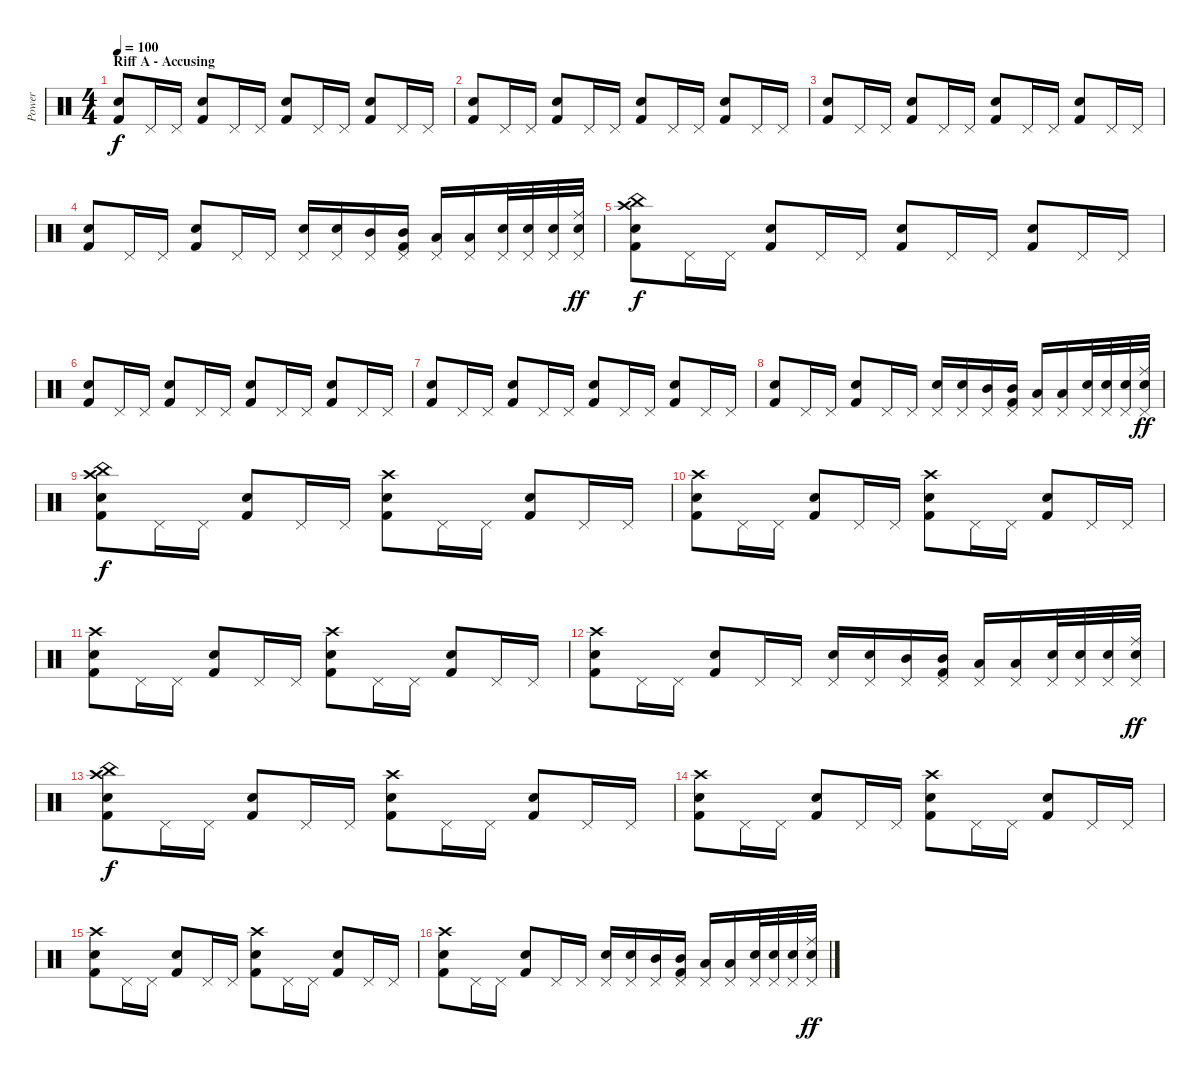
\track ("Power" "Power") {instrument percussion}
\staff {score}
\articulation defaults
\ts (4 4)
\section ("" "Riff A - Accusing")
\tempo 100
\clef neutral
\ks c
("Kick (hit) 2" "Electric Snare (hit)").8{dy f} "Pedal Hi-Hat (hit)".16 "Pedal Hi-Hat (hit)".16 ("Kick (hit) 2" "Electric Snare (hit)").8 "Pedal Hi-Hat (hit)".16 "Pedal Hi-Hat (hit)".16 ("Kick (hit) 2" "Electric Snare (hit)").8 "Pedal Hi-Hat (hit)".16 "Pedal Hi-Hat (hit)".16 ("Kick (hit) 2" "Electric Snare (hit)").8 "Pedal Hi-Hat (hit)".16 "Pedal Hi-Hat (hit)".16 |
("Kick (hit) 2" "Electric Snare (hit)").8 "Pedal Hi-Hat (hit)".16 "Pedal Hi-Hat (hit)".16 ("Kick (hit) 2" "Electric Snare (hit)").8 "Pedal Hi-Hat (hit)".16 "Pedal Hi-Hat (hit)".16 ("Kick (hit) 2" "Electric Snare (hit)").8 "Pedal Hi-Hat (hit)".16 "Pedal Hi-Hat (hit)".16 ("Kick (hit) 2" "Electric Snare (hit)").8 "Pedal Hi-Hat (hit)".16 "Pedal Hi-Hat (hit)".16 |
("Kick (hit) 2" "Electric Snare (hit)").8 "Pedal Hi-Hat (hit)".16 "Pedal Hi-Hat (hit)".16 ("Kick (hit) 2" "Electric Snare (hit)").8 "Pedal Hi-Hat (hit)".16 "Pedal Hi-Hat (hit)".16 ("Kick (hit) 2" "Electric Snare (hit)").8 "Pedal Hi-Hat (hit)".16 "Pedal Hi-Hat (hit)".16 ("Kick (hit) 2" "Electric Snare (hit)").8 "Pedal Hi-Hat (hit)".16 "Pedal Hi-Hat (hit)".16 |
("Kick (hit) 2" "Electric Snare (hit)").8 "Pedal Hi-Hat (hit)".16 "Pedal Hi-Hat (hit)".16 ("Kick (hit) 2" "Electric Snare (hit)").8 "Pedal Hi-Hat (hit)".16 "Pedal Hi-Hat (hit)".16 ("Pedal Hi-Hat (hit)" "Electric Snare (hit)").16 ("Pedal Hi-Hat (hit)" "Electric Snare (hit)").16 ("Pedal Hi-Hat (hit)" "Mid Tom (hit)").16 ("Pedal Hi-Hat (hit)" "Kick (hit) 2" "Mid Tom (hit)").16 ("Pedal Hi-Hat (hit)" "Low Tom (hit)").16 ("Pedal Hi-Hat (hit)" "Low Tom (hit)").16 ("Pedal Hi-Hat (hit)" "Electric Snare (hit)").32 ("Pedal Hi-Hat (hit)" "Electric Snare (hit)").32 ("Pedal Hi-Hat (hit)" "Electric Snare (hit)").32 ("Ride (middle)" "Pedal Hi-Hat (hit)" "Electric Snare (hit)").32{dy ff} |
("Crash high (hit)" "China (hit)" "Kick (hit) 2" "Electric Snare (hit)").8{dy f} "Pedal Hi-Hat (hit)".16 "Pedal Hi-Hat (hit)".16 ("Kick (hit) 2" "Electric Snare (hit)").8 "Pedal Hi-Hat (hit)".16 "Pedal Hi-Hat (hit)".16 ("Kick (hit) 2" "Electric Snare (hit)").8 "Pedal Hi-Hat (hit)".16 "Pedal Hi-Hat (hit)".16 ("Kick (hit) 2" "Electric Snare (hit)").8 "Pedal Hi-Hat (hit)".16 "Pedal Hi-Hat (hit)".16 |
("Kick (hit) 2" "Electric Snare (hit)").8 "Pedal Hi-Hat (hit)".16 "Pedal Hi-Hat (hit)".16 ("Kick (hit) 2" "Electric Snare (hit)").8 "Pedal Hi-Hat (hit)".16 "Pedal Hi-Hat (hit)".16 ("Kick (hit) 2" "Electric Snare (hit)").8 "Pedal Hi-Hat (hit)".16 "Pedal Hi-Hat (hit)".16 ("Kick (hit) 2" "Electric Snare (hit)").8 "Pedal Hi-Hat (hit)".16 "Pedal Hi-Hat (hit)".16 |
("Kick (hit) 2" "Electric Snare (hit)").8 "Pedal Hi-Hat (hit)".16 "Pedal Hi-Hat (hit)".16 ("Kick (hit) 2" "Electric Snare (hit)").8 "Pedal Hi-Hat (hit)".16 "Pedal Hi-Hat (hit)".16 ("Kick (hit) 2" "Electric Snare (hit)").8 "Pedal Hi-Hat (hit)".16 "Pedal Hi-Hat (hit)".16 ("Kick (hit) 2" "Electric Snare (hit)").8 "Pedal Hi-Hat (hit)".16 "Pedal Hi-Hat (hit)".16 |
("Kick (hit) 2" "Electric Snare (hit)").8 "Pedal Hi-Hat (hit)".16 "Pedal Hi-Hat (hit)".16 ("Kick (hit) 2" "Electric Snare (hit)").8 "Pedal Hi-Hat (hit)".16 "Pedal Hi-Hat (hit)".16 ("Pedal Hi-Hat (hit)" "Electric Snare (hit)").16 ("Pedal Hi-Hat (hit)" "Electric Snare (hit)").16 ("Pedal Hi-Hat (hit)" "Mid Tom (hit)").16 ("Pedal Hi-Hat (hit)" "Kick (hit) 2" "Mid Tom (hit)").16 ("Pedal Hi-Hat (hit)" "Low Tom (hit)").16 ("Pedal Hi-Hat (hit)" "Low Tom (hit)").16 ("Pedal Hi-Hat (hit)" "Electric Snare (hit)").32 ("Pedal Hi-Hat (hit)" "Electric Snare (hit)").32 ("Pedal Hi-Hat (hit)" "Electric Snare (hit)").32 ("Ride (middle)" "Pedal Hi-Hat (hit)" "Electric Snare (hit)").32{dy ff} |
("China (hit)" "Crash high (hit)" "Kick (hit) 2" "Electric Snare (hit)").8{dy f} "Pedal Hi-Hat (hit)".16 "Pedal Hi-Hat (hit)".16 ("Kick (hit) 2" "Electric Snare (hit)").8 "Pedal Hi-Hat (hit)".16 "Pedal Hi-Hat (hit)".16 ("Crash high (hit)" "Kick (hit) 2" "Electric Snare (hit)").8 "Pedal Hi-Hat (hit)".16 "Pedal Hi-Hat (hit)".16 ("Kick (hit) 2" "Electric Snare (hit)").8 "Pedal Hi-Hat (hit)".16 "Pedal Hi-Hat (hit)".16 |
("Crash high (hit)" "Kick (hit) 2" "Electric Snare (hit)").8 "Pedal Hi-Hat (hit)".16 "Pedal Hi-Hat (hit)".16 ("Kick (hit) 2" "Electric Snare (hit)").8 "Pedal Hi-Hat (hit)".16 "Pedal Hi-Hat (hit)".16 ("Crash high (hit)" "Kick (hit) 2" "Electric Snare (hit)").8 "Pedal Hi-Hat (hit)".16 "Pedal Hi-Hat (hit)".16 ("Kick (hit) 2" "Electric Snare (hit)").8 "Pedal Hi-Hat (hit)".16 "Pedal Hi-Hat (hit)".16 |
("Crash high (hit)" "Kick (hit) 2" "Electric Snare (hit)").8 "Pedal Hi-Hat (hit)".16 "Pedal Hi-Hat (hit)".16 ("Kick (hit) 2" "Electric Snare (hit)").8 "Pedal Hi-Hat (hit)".16 "Pedal Hi-Hat (hit)".16 ("Crash high (hit)" "Kick (hit) 2" "Electric Snare (hit)").8 "Pedal Hi-Hat (hit)".16 "Pedal Hi-Hat (hit)".16 ("Kick (hit) 2" "Electric Snare (hit)").8 "Pedal Hi-Hat (hit)".16 "Pedal Hi-Hat (hit)".16 |
("Crash high (hit)" "Kick (hit) 2" "Electric Snare (hit)").8 "Pedal Hi-Hat (hit)".16 "Pedal Hi-Hat (hit)".16 ("Kick (hit) 2" "Electric Snare (hit)").8 "Pedal Hi-Hat (hit)".16 "Pedal Hi-Hat (hit)".16 ("Pedal Hi-Hat (hit)" "Electric Snare (hit)").16 ("Pedal Hi-Hat (hit)" "Electric Snare (hit)").16 ("Pedal Hi-Hat (hit)" "Mid Tom (hit)").16 ("Pedal Hi-Hat (hit)" "Kick (hit) 2" "Mid Tom (hit)").16 ("Pedal Hi-Hat (hit)" "Low Tom (hit)").16 ("Pedal Hi-Hat (hit)" "Low Tom (hit)").16 ("Pedal Hi-Hat (hit)" "Electric Snare (hit)").32 ("Pedal Hi-Hat (hit)" "Electric Snare (hit)").32 ("Pedal Hi-Hat (hit)" "Electric Snare (hit)").32 ("Ride (middle)" "Pedal Hi-Hat (hit)" "Electric Snare (hit)").32{dy ff} |
("China (hit)" "Crash high (hit)" "Kick (hit) 2" "Electric Snare (hit)").8{dy f} "Pedal Hi-Hat (hit)".16 "Pedal Hi-Hat (hit)".16 ("Kick (hit) 2" "Electric Snare (hit)").8 "Pedal Hi-Hat (hit)".16 "Pedal Hi-Hat (hit)".16 ("Crash high (hit)" "Kick (hit) 2" "Electric Snare (hit)").8 "Pedal Hi-Hat (hit)".16 "Pedal Hi-Hat (hit)".16 ("Kick (hit) 2" "Electric Snare (hit)").8 "Pedal Hi-Hat (hit)".16 "Pedal Hi-Hat (hit)".16 |
("Crash high (hit)" "Kick (hit) 2" "Electric Snare (hit)").8 "Pedal Hi-Hat (hit)".16 "Pedal Hi-Hat (hit)".16 ("Kick (hit) 2" "Electric Snare (hit)").8 "Pedal Hi-Hat (hit)".16 "Pedal Hi-Hat (hit)".16 ("Crash high (hit)" "Kick (hit) 2" "Electric Snare (hit)").8 "Pedal Hi-Hat (hit)".16 "Pedal Hi-Hat (hit)".16 ("Kick (hit) 2" "Electric Snare (hit)").8 "Pedal Hi-Hat (hit)".16 "Pedal Hi-Hat (hit)".16 |
("Crash high (hit)" "Kick (hit) 2" "Electric Snare (hit)").8 "Pedal Hi-Hat (hit)".16 "Pedal Hi-Hat (hit)".16 ("Kick (hit) 2" "Electric Snare (hit)").8 "Pedal Hi-Hat (hit)".16 "Pedal Hi-Hat (hit)".16 ("Crash high (hit)" "Kick (hit) 2" "Electric Snare (hit)").8 "Pedal Hi-Hat (hit)".16 "Pedal Hi-Hat (hit)".16 ("Kick (hit) 2" "Electric Snare (hit)").8 "Pedal Hi-Hat (hit)".16 "Pedal Hi-Hat (hit)".16 |
("Crash high (hit)" "Kick (hit) 2" "Electric Snare (hit)").8 "Pedal Hi-Hat (hit)".16 "Pedal Hi-Hat (hit)".16 ("Kick (hit) 2" "Electric Snare (hit)").8 "Pedal Hi-Hat (hit)".16 "Pedal Hi-Hat (hit)".16 ("Pedal Hi-Hat (hit)" "Electric Snare (hit)").16 ("Pedal Hi-Hat (hit)" "Electric Snare (hit)").16 ("Pedal Hi-Hat (hit)" "Mid Tom (hit)").16 ("Pedal Hi-Hat (hit)" "Kick (hit) 2" "Mid Tom (hit)").16 ("Pedal Hi-Hat (hit)" "Low Tom (hit)").16 ("Pedal Hi-Hat (hit)" "Low Tom (hit)").16 ("Pedal Hi-Hat (hit)" "Electric Snare (hit)").32 ("Pedal Hi-Hat (hit)" "Electric Snare (hit)").32 ("Pedal Hi-Hat (hit)" "Electric Snare (hit)").32 ("Ride (middle)" "Pedal Hi-Hat (hit)" "Electric Snare (hit)").32{dy ff}
